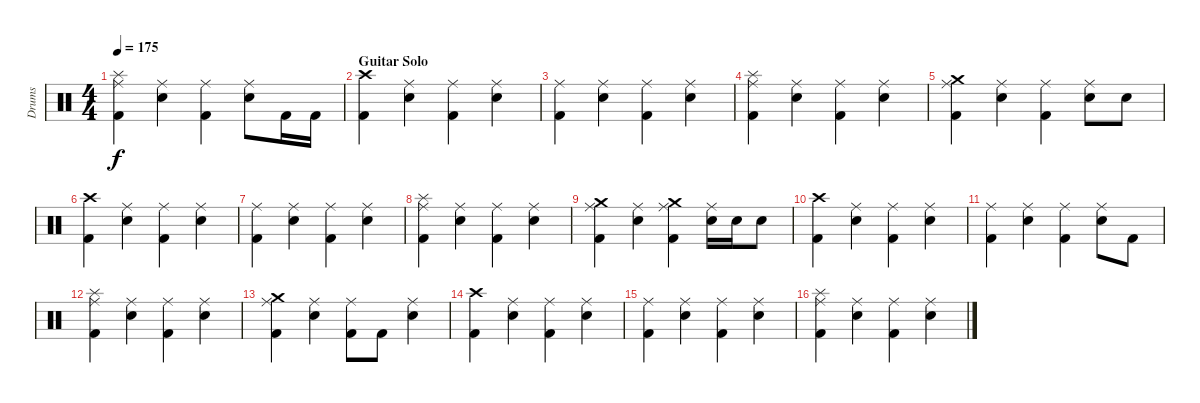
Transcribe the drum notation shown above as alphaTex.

\track ("Drums" "Drums") {instrument percussion}
\staff {score}
\articulation defaults
\ts (4 4)
\tempo 175
\clef neutral
\ks c
("Splash (hit)" "Ride (middle)" "Kick (hit) 2").4{dy f} ("Ride (middle)" "Snare (hit) 2").4 ("Ride (middle)" "Kick (hit) 2").4 ("Ride (middle)" "Snare (hit) 2").8 "Kick (hit) 2".16 "Kick (hit) 2".16 |
\section ("" "Guitar Solo")
("Crash high (hit)" "Kick (hit) 2").4 ("Ride (middle)" "Snare (hit) 2").4 ("Ride (middle)" "Kick (hit) 2").4 ("Ride (middle)" "Snare (hit) 2").4 |
("Ride (middle)" "Kick (hit) 2").4 ("Ride (middle)" "Snare (hit) 2").4 ("Ride (middle)" "Kick (hit) 2").4 ("Ride (middle)" "Snare (hit) 2").4 |
("Splash (hit)" "Ride (middle)" "Kick (hit) 2").4 ("Ride (middle)" "Snare (hit) 2").4 ("Ride (middle)" "Kick (hit) 2").4 ("Ride (middle)" "Snare (hit) 2").4 |
("Crash medium (hit)" "Ride (middle)" "Kick (hit) 2").4 ("Ride (middle)" "Snare (hit) 2").4 ("Ride (middle)" "Kick (hit) 2").4 ("Ride (middle)" "Snare (hit) 2").8 "Snare (hit) 2".8 |
("Crash high (hit)" "Kick (hit) 2").4 ("Ride (middle)" "Snare (hit) 2").4 ("Ride (middle)" "Kick (hit) 2").4 ("Ride (middle)" "Snare (hit) 2").4 |
("Ride (middle)" "Kick (hit) 2").4 ("Ride (middle)" "Snare (hit) 2").4 ("Ride (middle)" "Kick (hit) 2").4 ("Ride (middle)" "Snare (hit) 2").4 |
("Splash (hit)" "Ride (middle)" "Kick (hit) 2").4 ("Ride (middle)" "Snare (hit) 2").4 ("Ride (middle)" "Kick (hit) 2").4 ("Ride (middle)" "Snare (hit) 2").4 |
("Crash medium (hit)" "Ride (middle)" "Kick (hit) 2").4 ("Ride (middle)" "Snare (hit) 2").4 ("Crash medium (hit)" "Ride (middle)" "Kick (hit) 2").4 ("Ride (middle)" "Snare (hit) 2").16 "Snare (hit) 2".16 "Snare (hit) 2".8 |
("Crash high (hit)" "Kick (hit) 2").4 ("Ride (middle)" "Snare (hit) 2").4 ("Ride (middle)" "Kick (hit) 2").4 ("Ride (middle)" "Snare (hit) 2").4 |
("Ride (middle)" "Kick (hit) 2").4 ("Ride (middle)" "Snare (hit) 2").4 ("Ride (middle)" "Kick (hit) 2").4 ("Ride (middle)" "Snare (hit) 2").8 "Kick (hit) 2".8 |
("Splash (hit)" "Ride (middle)" "Kick (hit) 2").4 ("Ride (middle)" "Snare (hit) 2").4 ("Ride (middle)" "Kick (hit) 2").4 ("Ride (middle)" "Snare (hit) 2").4 |
("Crash medium (hit)" "Ride (middle)" "Kick (hit) 2").4 ("Ride (middle)" "Snare (hit) 2").4 ("Ride (middle)" "Kick (hit) 2").8 "Kick (hit) 2".8 ("Ride (middle)" "Snare (hit) 2").4 |
("Crash high (hit)" "Kick (hit) 2").4 ("Ride (middle)" "Snare (hit) 2").4 ("Ride (middle)" "Kick (hit) 2").4 ("Ride (middle)" "Snare (hit) 2").4 |
("Ride (middle)" "Kick (hit) 2").4 ("Ride (middle)" "Snare (hit) 2").4 ("Ride (middle)" "Kick (hit) 2").4 ("Ride (middle)" "Snare (hit) 2").4 |
("Splash (hit)" "Ride (middle)" "Kick (hit) 2").4 ("Ride (middle)" "Snare (hit) 2").4 ("Ride (middle)" "Kick (hit) 2").4 ("Ride (middle)" "Snare (hit) 2").4
